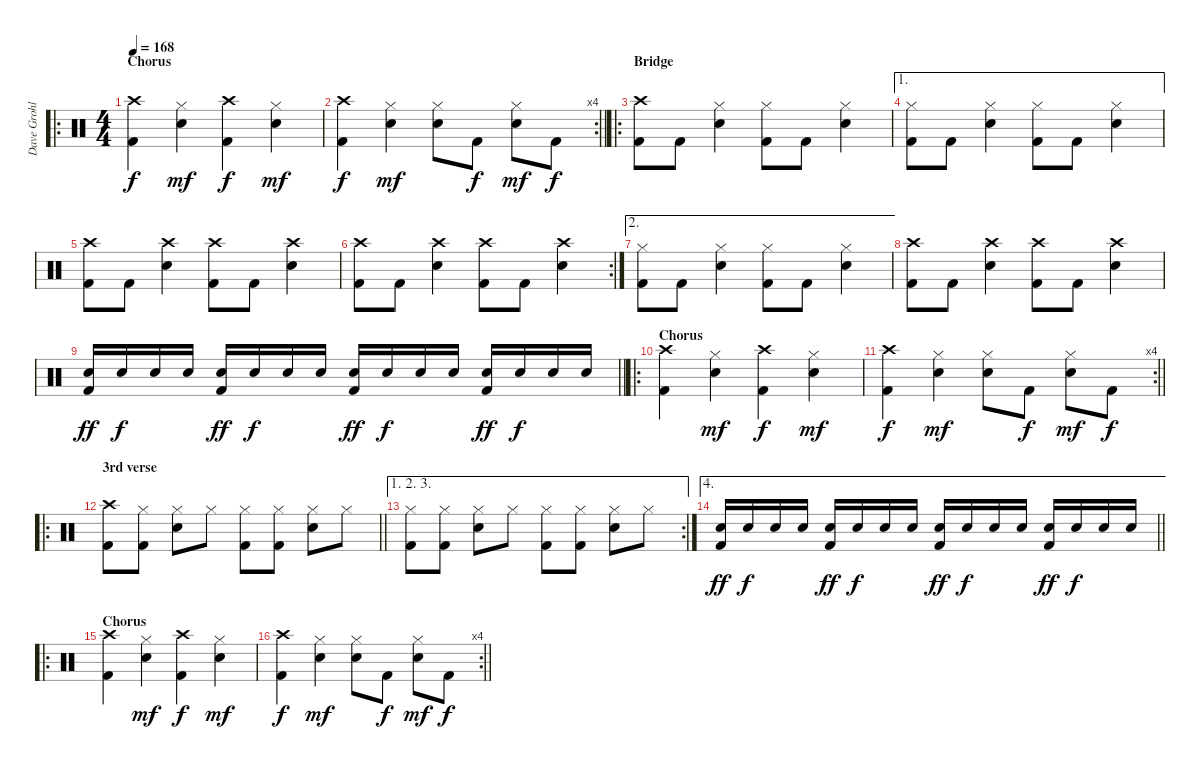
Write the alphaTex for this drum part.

\track ("Dave Grohl - Drums" "Dave Grohl") {instrument percussion}
\staff {score}
\articulation defaults
\ro
\ts (4 4)
\section ("" "Chorus")
\tempo 168
\clef neutral
\ks c
("Crash high (hit)" "Kick (hit) 2").4{dy f volume 13} ("Hi-Hat (closed)" "Electric Snare (hit)").4{dy mf} ("Crash high (hit)" "Kick (hit) 2").4{dy f} ("Hi-Hat (closed)" "Electric Snare (hit)").4{dy mf} |
\rc 4
\barLineRight lightlight
("Crash high (hit)" "Kick (hit) 2").4{dy f} ("Hi-Hat (closed)" "Electric Snare (hit)").4{dy mf} ("Hi-Hat (closed)" "Electric Snare (hit)").8 "Kick (hit) 2".8{dy f} ("Hi-Hat (closed)" "Electric Snare (hit)").8{dy mf} "Kick (hit) 2".8{dy f} |
\ro
\section ("" "Bridge")
("Crash high (hit)" "Kick (hit) 2").8 "Kick (hit) 2".8 ("Hi-Hat (closed)" "Electric Snare (hit)").4 ("Hi-Hat (closed)" "Kick (hit) 2").8 "Kick (hit) 2".8 ("Hi-Hat (closed)" "Electric Snare (hit)").4 |
\ae 1
("Hi-Hat (closed)" "Kick (hit) 2").8 "Kick (hit) 2".8 ("Hi-Hat (closed)" "Electric Snare (hit)").4 ("Hi-Hat (closed)" "Kick (hit) 2").8 "Kick (hit) 2".8 ("Hi-Hat (closed)" "Electric Snare (hit)").4 |
("Crash high (hit)" "Kick (hit) 2").8 "Kick (hit) 2".8 ("Crash high (hit)" "Electric Snare (hit)").4 ("Crash high (hit)" "Kick (hit) 2").8 "Kick (hit) 2".8 ("Crash high (hit)" "Electric Snare (hit)").4 |
\rc 2
("Crash high (hit)" "Kick (hit) 2").8 "Kick (hit) 2".8 ("Crash high (hit)" "Electric Snare (hit)").4 ("Crash high (hit)" "Kick (hit) 2").8 "Kick (hit) 2".8 ("Crash high (hit)" "Electric Snare (hit)").4 |
\ae 2
("Hi-Hat (closed)" "Kick (hit) 2").8 "Kick (hit) 2".8 ("Hi-Hat (closed)" "Electric Snare (hit)").4 ("Hi-Hat (closed)" "Kick (hit) 2").8 "Kick (hit) 2".8 ("Hi-Hat (closed)" "Electric Snare (hit)").4 |
("Crash high (hit)" "Kick (hit) 2").8 "Kick (hit) 2".8 ("Crash high (hit)" "Electric Snare (hit)").4 ("Crash high (hit)" "Kick (hit) 2").8 "Kick (hit) 2".8 ("Crash high (hit)" "Electric Snare (hit)").4 |
\barLineRight lightlight
("Electric Snare (hit)" "Kick (hit) 2").16{dy ff} "Electric Snare (hit)".16{dy f} "Electric Snare (hit)".16 "Electric Snare (hit)".16 ("Electric Snare (hit)" "Kick (hit) 2").16{dy ff} "Electric Snare (hit)".16{dy f} "Electric Snare (hit)".16 "Electric Snare (hit)".16 ("Electric Snare (hit)" "Kick (hit) 2").16{dy ff} "Electric Snare (hit)".16{dy f} "Electric Snare (hit)".16 "Electric Snare (hit)".16 ("Electric Snare (hit)" "Kick (hit) 2").16{dy ff} "Electric Snare (hit)".16{dy f} "Electric Snare (hit)".16 "Electric Snare (hit)".16 |
\ro
\section ("" "Chorus")
("Crash high (hit)" "Kick (hit) 2").4{volume 13} ("Hi-Hat (closed)" "Electric Snare (hit)").4{dy mf} ("Crash high (hit)" "Kick (hit) 2").4{dy f} ("Hi-Hat (closed)" "Electric Snare (hit)").4{dy mf} |
\rc 4
\barLineRight lightlight
("Crash high (hit)" "Kick (hit) 2").4{dy f} ("Hi-Hat (closed)" "Electric Snare (hit)").4{dy mf} ("Hi-Hat (closed)" "Electric Snare (hit)").8 "Kick (hit) 2".8{dy f} ("Hi-Hat (closed)" "Electric Snare (hit)").8{dy mf} "Kick (hit) 2".8{dy f} |
\ro
\section ("" "3rd verse")
\barLineRight lightlight
("Crash high (hit)" "Kick (hit) 2").8 ("Hi-Hat (closed)" "Kick (hit) 2").8 ("Hi-Hat (closed)" "Electric Snare (hit)").8 "Hi-Hat (closed)".8 ("Hi-Hat (closed)" "Kick (hit) 2").8 ("Hi-Hat (closed)" "Kick (hit) 2").8 ("Hi-Hat (closed)" "Electric Snare (hit)").8 "Hi-Hat (closed)".8 |
\ae (1 2 3)
\rc 2
("Hi-Hat (closed)" "Kick (hit) 2").8 ("Hi-Hat (closed)" "Kick (hit) 2").8 ("Hi-Hat (closed)" "Electric Snare (hit)").8 "Hi-Hat (closed)".8 ("Hi-Hat (closed)" "Kick (hit) 2").8 ("Hi-Hat (closed)" "Kick (hit) 2").8 ("Hi-Hat (closed)" "Electric Snare (hit)").8 "Hi-Hat (closed)".8 |
\ae 4
\barLineRight lightlight
("Electric Snare (hit)" "Kick (hit) 2").16{dy ff} "Electric Snare (hit)".16{dy f} "Electric Snare (hit)".16 "Electric Snare (hit)".16 ("Electric Snare (hit)" "Kick (hit) 2").16{dy ff} "Electric Snare (hit)".16{dy f} "Electric Snare (hit)".16 "Electric Snare (hit)".16 ("Electric Snare (hit)" "Kick (hit) 2").16{dy ff} "Electric Snare (hit)".16{dy f} "Electric Snare (hit)".16 "Electric Snare (hit)".16 ("Electric Snare (hit)" "Kick (hit) 2").16{dy ff} "Electric Snare (hit)".16{dy f} "Electric Snare (hit)".16 "Electric Snare (hit)".16 |
\ro
\section ("" "Chorus")
("Crash high (hit)" "Kick (hit) 2").4{volume 13} ("Hi-Hat (closed)" "Electric Snare (hit)").4{dy mf} ("Crash high (hit)" "Kick (hit) 2").4{dy f} ("Hi-Hat (closed)" "Electric Snare (hit)").4{dy mf} |
\rc 4
\barLineRight lightlight
("Crash high (hit)" "Kick (hit) 2").4{dy f} ("Hi-Hat (closed)" "Electric Snare (hit)").4{dy mf} ("Hi-Hat (closed)" "Electric Snare (hit)").8 "Kick (hit) 2".8{dy f} ("Hi-Hat (closed)" "Electric Snare (hit)").8{dy mf} "Kick (hit) 2".8{dy f}
